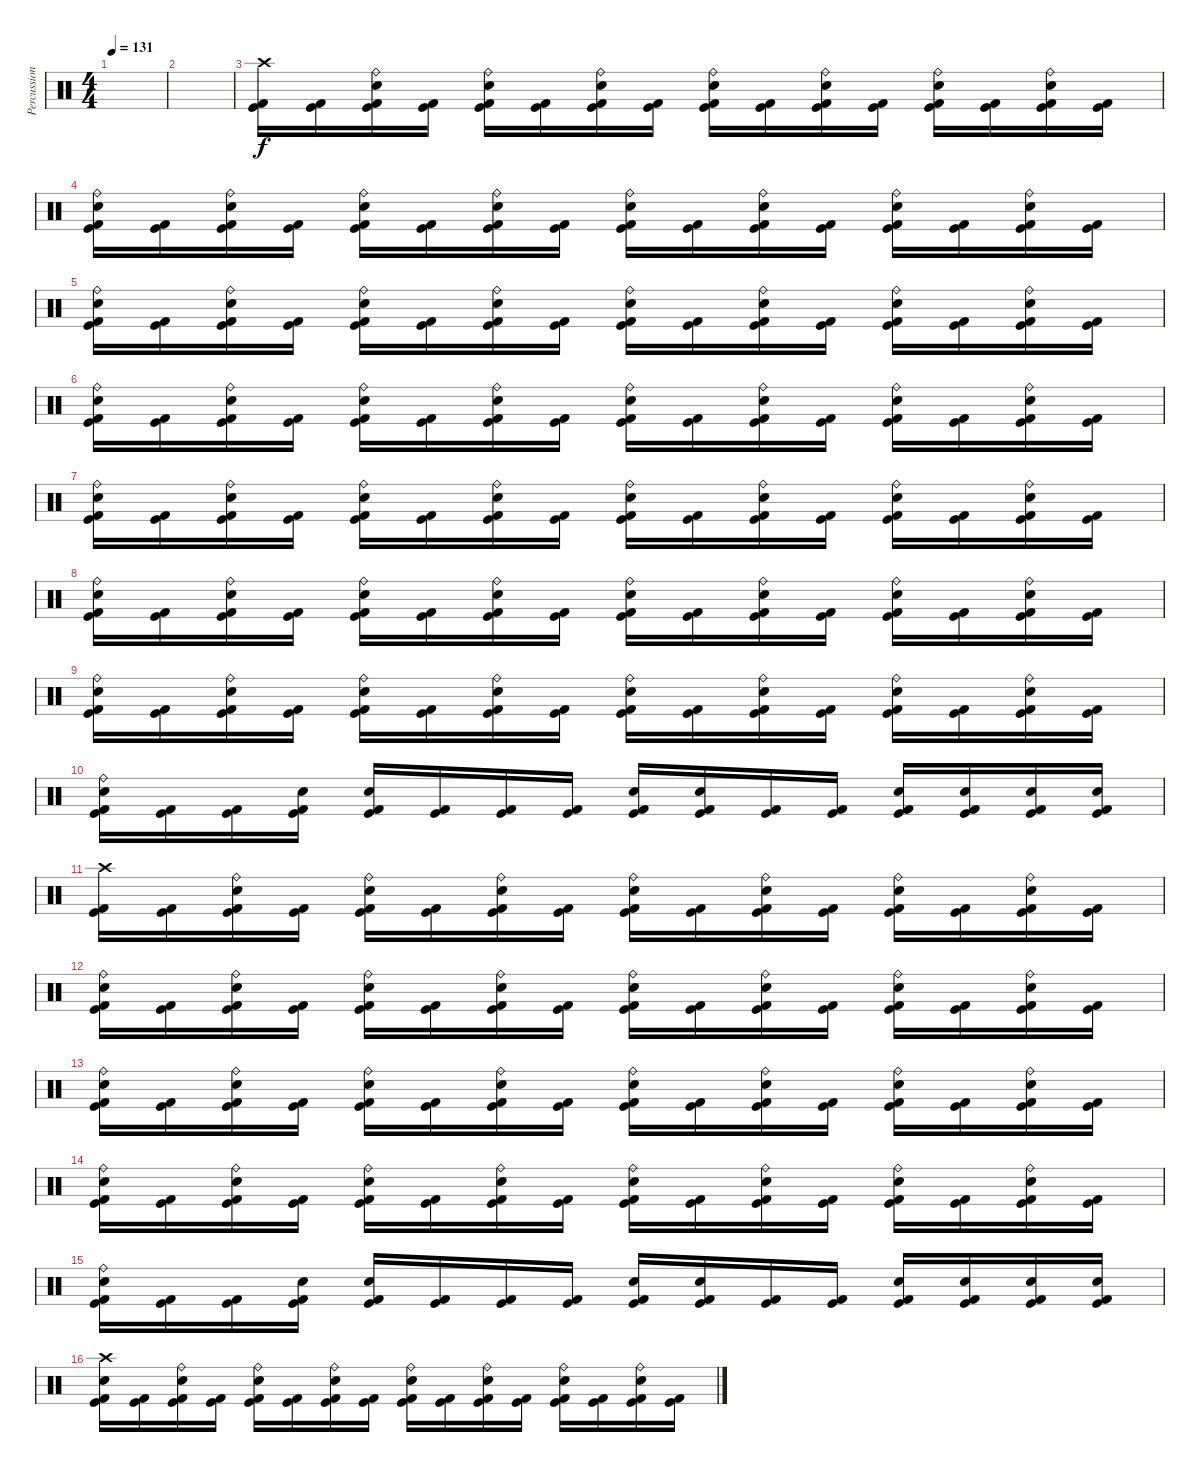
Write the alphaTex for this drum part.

\track ("Percussion" "Percussion") {instrument percussion}
\staff {score}
\articulation defaults
\ts (4 4)
\tempo 131
\clef neutral
\ks c
|
|
("Crash high (hit)" "Kick (hit)" "Kick (hit) 2").16 ("Kick (hit)" "Kick (hit) 2").16 ("Snare (hit) 2" "Ride (bell)" "Kick (hit)" "Kick (hit) 2").16 ("Kick (hit)" "Kick (hit) 2").16 ("Snare (hit) 2" "Ride (bell)" "Kick (hit)" "Kick (hit) 2").16 ("Kick (hit)" "Kick (hit) 2").16 ("Snare (hit) 2" "Ride (bell)" "Kick (hit)" "Kick (hit) 2").16 ("Kick (hit)" "Kick (hit) 2").16 ("Snare (hit) 2" "Ride (bell)" "Kick (hit)" "Kick (hit) 2").16 ("Kick (hit)" "Kick (hit) 2").16 ("Snare (hit) 2" "Ride (bell)" "Kick (hit)" "Kick (hit) 2").16 ("Kick (hit)" "Kick (hit) 2").16 ("Snare (hit) 2" "Ride (bell)" "Kick (hit)" "Kick (hit) 2").16 ("Kick (hit)" "Kick (hit) 2").16 ("Snare (hit) 2" "Ride (bell)" "Kick (hit)" "Kick (hit) 2").16 ("Kick (hit)" "Kick (hit) 2").16 |
("Snare (hit) 2" "Ride (bell)" "Kick (hit)" "Kick (hit) 2").16 ("Kick (hit)" "Kick (hit) 2").16 ("Snare (hit) 2" "Ride (bell)" "Kick (hit)" "Kick (hit) 2").16 ("Kick (hit)" "Kick (hit) 2").16 ("Snare (hit) 2" "Ride (bell)" "Kick (hit)" "Kick (hit) 2").16 ("Kick (hit)" "Kick (hit) 2").16 ("Snare (hit) 2" "Ride (bell)" "Kick (hit)" "Kick (hit) 2").16 ("Kick (hit)" "Kick (hit) 2").16 ("Snare (hit) 2" "Ride (bell)" "Kick (hit)" "Kick (hit) 2").16 ("Kick (hit)" "Kick (hit) 2").16 ("Snare (hit) 2" "Ride (bell)" "Kick (hit)" "Kick (hit) 2").16 ("Kick (hit)" "Kick (hit) 2").16 ("Snare (hit) 2" "Ride (bell)" "Kick (hit)" "Kick (hit) 2").16 ("Kick (hit)" "Kick (hit) 2").16 ("Snare (hit) 2" "Ride (bell)" "Kick (hit)" "Kick (hit) 2").16 ("Kick (hit)" "Kick (hit) 2").16 |
("Snare (hit) 2" "Ride (bell)" "Kick (hit)" "Kick (hit) 2").16 ("Kick (hit)" "Kick (hit) 2").16 ("Snare (hit) 2" "Ride (bell)" "Kick (hit)" "Kick (hit) 2").16 ("Kick (hit)" "Kick (hit) 2").16 ("Snare (hit) 2" "Ride (bell)" "Kick (hit)" "Kick (hit) 2").16 ("Kick (hit)" "Kick (hit) 2").16 ("Snare (hit) 2" "Ride (bell)" "Kick (hit)" "Kick (hit) 2").16 ("Kick (hit)" "Kick (hit) 2").16 ("Snare (hit) 2" "Ride (bell)" "Kick (hit)" "Kick (hit) 2").16 ("Kick (hit)" "Kick (hit) 2").16 ("Snare (hit) 2" "Ride (bell)" "Kick (hit)" "Kick (hit) 2").16 ("Kick (hit)" "Kick (hit) 2").16 ("Snare (hit) 2" "Ride (bell)" "Kick (hit)" "Kick (hit) 2").16 ("Kick (hit)" "Kick (hit) 2").16 ("Snare (hit) 2" "Ride (bell)" "Kick (hit)" "Kick (hit) 2").16 ("Kick (hit)" "Kick (hit) 2").16 |
("Snare (hit) 2" "Ride (bell)" "Kick (hit)" "Kick (hit) 2").16 ("Kick (hit)" "Kick (hit) 2").16 ("Snare (hit) 2" "Ride (bell)" "Kick (hit)" "Kick (hit) 2").16 ("Kick (hit)" "Kick (hit) 2").16 ("Snare (hit) 2" "Ride (bell)" "Kick (hit)" "Kick (hit) 2").16 ("Kick (hit)" "Kick (hit) 2").16 ("Snare (hit) 2" "Ride (bell)" "Kick (hit)" "Kick (hit) 2").16 ("Kick (hit)" "Kick (hit) 2").16 ("Snare (hit) 2" "Ride (bell)" "Kick (hit)" "Kick (hit) 2").16 ("Kick (hit)" "Kick (hit) 2").16 ("Snare (hit) 2" "Ride (bell)" "Kick (hit)" "Kick (hit) 2").16 ("Kick (hit)" "Kick (hit) 2").16 ("Snare (hit) 2" "Ride (bell)" "Kick (hit)" "Kick (hit) 2").16 ("Kick (hit)" "Kick (hit) 2").16 ("Snare (hit) 2" "Ride (bell)" "Kick (hit)" "Kick (hit) 2").16 ("Kick (hit)" "Kick (hit) 2").16 |
("Snare (hit) 2" "Ride (bell)" "Kick (hit)" "Kick (hit) 2").16 ("Kick (hit)" "Kick (hit) 2").16 ("Snare (hit) 2" "Ride (bell)" "Kick (hit)" "Kick (hit) 2").16 ("Kick (hit)" "Kick (hit) 2").16 ("Snare (hit) 2" "Ride (bell)" "Kick (hit)" "Kick (hit) 2").16 ("Kick (hit)" "Kick (hit) 2").16 ("Snare (hit) 2" "Ride (bell)" "Kick (hit)" "Kick (hit) 2").16 ("Kick (hit)" "Kick (hit) 2").16 ("Snare (hit) 2" "Ride (bell)" "Kick (hit)" "Kick (hit) 2").16 ("Kick (hit)" "Kick (hit) 2").16 ("Snare (hit) 2" "Ride (bell)" "Kick (hit)" "Kick (hit) 2").16 ("Kick (hit)" "Kick (hit) 2").16 ("Snare (hit) 2" "Ride (bell)" "Kick (hit)" "Kick (hit) 2").16 ("Kick (hit)" "Kick (hit) 2").16 ("Snare (hit) 2" "Ride (bell)" "Kick (hit)" "Kick (hit) 2").16 ("Kick (hit)" "Kick (hit) 2").16 |
("Snare (hit) 2" "Ride (bell)" "Kick (hit)" "Kick (hit) 2").16 ("Kick (hit)" "Kick (hit) 2").16 ("Snare (hit) 2" "Ride (bell)" "Kick (hit)" "Kick (hit) 2").16 ("Kick (hit)" "Kick (hit) 2").16 ("Snare (hit) 2" "Ride (bell)" "Kick (hit)" "Kick (hit) 2").16 ("Kick (hit)" "Kick (hit) 2").16 ("Snare (hit) 2" "Ride (bell)" "Kick (hit)" "Kick (hit) 2").16 ("Kick (hit)" "Kick (hit) 2").16 ("Snare (hit) 2" "Ride (bell)" "Kick (hit)" "Kick (hit) 2").16 ("Kick (hit)" "Kick (hit) 2").16 ("Snare (hit) 2" "Ride (bell)" "Kick (hit)" "Kick (hit) 2").16 ("Kick (hit)" "Kick (hit) 2").16 ("Snare (hit) 2" "Ride (bell)" "Kick (hit)" "Kick (hit) 2").16 ("Kick (hit)" "Kick (hit) 2").16 ("Snare (hit) 2" "Ride (bell)" "Kick (hit)" "Kick (hit) 2").16 ("Kick (hit)" "Kick (hit) 2").16 |
("Snare (hit) 2" "Ride (bell)" "Kick (hit)" "Kick (hit) 2").16 ("Kick (hit)" "Kick (hit) 2").16 ("Snare (hit) 2" "Ride (bell)" "Kick (hit)" "Kick (hit) 2").16 ("Kick (hit)" "Kick (hit) 2").16 ("Snare (hit) 2" "Ride (bell)" "Kick (hit)" "Kick (hit) 2").16 ("Kick (hit)" "Kick (hit) 2").16 ("Snare (hit) 2" "Ride (bell)" "Kick (hit)" "Kick (hit) 2").16 ("Kick (hit)" "Kick (hit) 2").16 ("Snare (hit) 2" "Ride (bell)" "Kick (hit)" "Kick (hit) 2").16 ("Kick (hit)" "Kick (hit) 2").16 ("Snare (hit) 2" "Ride (bell)" "Kick (hit)" "Kick (hit) 2").16 ("Kick (hit)" "Kick (hit) 2").16 ("Snare (hit) 2" "Ride (bell)" "Kick (hit)" "Kick (hit) 2").16 ("Kick (hit)" "Kick (hit) 2").16 ("Snare (hit) 2" "Ride (bell)" "Kick (hit)" "Kick (hit) 2").16 ("Kick (hit)" "Kick (hit) 2").16 |
("Snare (hit) 2" "Ride (bell)" "Kick (hit)" "Kick (hit) 2").16 ("Kick (hit)" "Kick (hit) 2").16 ("Kick (hit)" "Kick (hit) 2").16 ("Snare (hit) 2" "Kick (hit)" "Kick (hit) 2").16 ("Snare (hit) 2" "Kick (hit)" "Kick (hit) 2").16 ("Kick (hit)" "Kick (hit) 2").16 ("Kick (hit)" "Kick (hit) 2").16 ("Kick (hit)" "Kick (hit) 2").16 ("Snare (hit) 2" "Kick (hit)" "Kick (hit) 2").16 ("Snare (hit) 2" "Kick (hit)" "Kick (hit) 2").16 ("Kick (hit)" "Kick (hit) 2").16 ("Kick (hit)" "Kick (hit) 2").16 ("Snare (hit) 2" "Kick (hit)" "Kick (hit) 2").16 ("Snare (hit) 2" "Kick (hit)" "Kick (hit) 2").16 ("Snare (hit) 2" "Kick (hit)" "Kick (hit) 2").16 ("Snare (hit) 2" "Kick (hit)" "Kick (hit) 2").16 |
("Crash high (hit)" "Kick (hit)" "Kick (hit) 2").16 ("Kick (hit)" "Kick (hit) 2").16 ("Snare (hit) 2" "Ride (bell)" "Kick (hit)" "Kick (hit) 2").16 ("Kick (hit)" "Kick (hit) 2").16 ("Snare (hit) 2" "Ride (bell)" "Kick (hit)" "Kick (hit) 2").16 ("Kick (hit)" "Kick (hit) 2").16 ("Snare (hit) 2" "Ride (bell)" "Kick (hit)" "Kick (hit) 2").16 ("Kick (hit)" "Kick (hit) 2").16 ("Snare (hit) 2" "Ride (bell)" "Kick (hit)" "Kick (hit) 2").16 ("Kick (hit)" "Kick (hit) 2").16 ("Snare (hit) 2" "Ride (bell)" "Kick (hit)" "Kick (hit) 2").16 ("Kick (hit)" "Kick (hit) 2").16 ("Snare (hit) 2" "Ride (bell)" "Kick (hit)" "Kick (hit) 2").16 ("Kick (hit)" "Kick (hit) 2").16 ("Snare (hit) 2" "Ride (bell)" "Kick (hit)" "Kick (hit) 2").16 ("Kick (hit)" "Kick (hit) 2").16 |
("Snare (hit) 2" "Ride (bell)" "Kick (hit)" "Kick (hit) 2").16 ("Kick (hit)" "Kick (hit) 2").16 ("Snare (hit) 2" "Ride (bell)" "Kick (hit)" "Kick (hit) 2").16 ("Kick (hit)" "Kick (hit) 2").16 ("Snare (hit) 2" "Ride (bell)" "Kick (hit)" "Kick (hit) 2").16 ("Kick (hit)" "Kick (hit) 2").16 ("Snare (hit) 2" "Ride (bell)" "Kick (hit)" "Kick (hit) 2").16 ("Kick (hit)" "Kick (hit) 2").16 ("Snare (hit) 2" "Ride (bell)" "Kick (hit)" "Kick (hit) 2").16 ("Kick (hit)" "Kick (hit) 2").16 ("Snare (hit) 2" "Ride (bell)" "Kick (hit)" "Kick (hit) 2").16 ("Kick (hit)" "Kick (hit) 2").16 ("Snare (hit) 2" "Ride (bell)" "Kick (hit)" "Kick (hit) 2").16 ("Kick (hit)" "Kick (hit) 2").16 ("Snare (hit) 2" "Ride (bell)" "Kick (hit)" "Kick (hit) 2").16 ("Kick (hit)" "Kick (hit) 2").16 |
("Snare (hit) 2" "Ride (bell)" "Kick (hit)" "Kick (hit) 2").16 ("Kick (hit)" "Kick (hit) 2").16 ("Snare (hit) 2" "Ride (bell)" "Kick (hit)" "Kick (hit) 2").16 ("Kick (hit)" "Kick (hit) 2").16 ("Snare (hit) 2" "Ride (bell)" "Kick (hit)" "Kick (hit) 2").16 ("Kick (hit)" "Kick (hit) 2").16 ("Snare (hit) 2" "Ride (bell)" "Kick (hit)" "Kick (hit) 2").16 ("Kick (hit)" "Kick (hit) 2").16 ("Snare (hit) 2" "Ride (bell)" "Kick (hit)" "Kick (hit) 2").16 ("Kick (hit)" "Kick (hit) 2").16 ("Snare (hit) 2" "Ride (bell)" "Kick (hit)" "Kick (hit) 2").16 ("Kick (hit)" "Kick (hit) 2").16 ("Snare (hit) 2" "Ride (bell)" "Kick (hit)" "Kick (hit) 2").16 ("Kick (hit)" "Kick (hit) 2").16 ("Snare (hit) 2" "Ride (bell)" "Kick (hit)" "Kick (hit) 2").16 ("Kick (hit)" "Kick (hit) 2").16 |
("Snare (hit) 2" "Ride (bell)" "Kick (hit)" "Kick (hit) 2").16 ("Kick (hit)" "Kick (hit) 2").16 ("Snare (hit) 2" "Ride (bell)" "Kick (hit)" "Kick (hit) 2").16 ("Kick (hit)" "Kick (hit) 2").16 ("Snare (hit) 2" "Ride (bell)" "Kick (hit)" "Kick (hit) 2").16 ("Kick (hit)" "Kick (hit) 2").16 ("Snare (hit) 2" "Ride (bell)" "Kick (hit)" "Kick (hit) 2").16 ("Kick (hit)" "Kick (hit) 2").16 ("Snare (hit) 2" "Ride (bell)" "Kick (hit)" "Kick (hit) 2").16 ("Kick (hit)" "Kick (hit) 2").16 ("Snare (hit) 2" "Ride (bell)" "Kick (hit)" "Kick (hit) 2").16 ("Kick (hit)" "Kick (hit) 2").16 ("Snare (hit) 2" "Ride (bell)" "Kick (hit)" "Kick (hit) 2").16 ("Kick (hit)" "Kick (hit) 2").16 ("Snare (hit) 2" "Ride (bell)" "Kick (hit)" "Kick (hit) 2").16 ("Kick (hit)" "Kick (hit) 2").16 |
("Snare (hit) 2" "Ride (bell)" "Kick (hit)" "Kick (hit) 2").16 ("Kick (hit)" "Kick (hit) 2").16 ("Kick (hit)" "Kick (hit) 2").16 ("Snare (hit) 2" "Kick (hit)" "Kick (hit) 2").16 ("Snare (hit) 2" "Kick (hit)" "Kick (hit) 2").16 ("Kick (hit)" "Kick (hit) 2").16 ("Kick (hit)" "Kick (hit) 2").16 ("Kick (hit)" "Kick (hit) 2").16 ("Snare (hit) 2" "Kick (hit)" "Kick (hit) 2").16 ("Snare (hit) 2" "Kick (hit)" "Kick (hit) 2").16 ("Kick (hit)" "Kick (hit) 2").16 ("Kick (hit)" "Kick (hit) 2").16 ("Snare (hit) 2" "Kick (hit)" "Kick (hit) 2").16 ("Snare (hit) 2" "Kick (hit)" "Kick (hit) 2").16 ("Snare (hit) 2" "Kick (hit)" "Kick (hit) 2").16 ("Snare (hit) 2" "Kick (hit)" "Kick (hit) 2").16 |
("Snare (hit) 2" "Crash high (hit)" "Kick (hit)" "Kick (hit) 2").16 ("Kick (hit)" "Kick (hit) 2").16 ("Snare (hit) 2" "Ride (bell)" "Kick (hit)" "Kick (hit) 2").16 ("Kick (hit)" "Kick (hit) 2").16 ("Snare (hit) 2" "Ride (bell)" "Kick (hit)" "Kick (hit) 2").16 ("Kick (hit)" "Kick (hit) 2").16 ("Snare (hit) 2" "Ride (bell)" "Kick (hit)" "Kick (hit) 2").16 ("Kick (hit)" "Kick (hit) 2").16 ("Snare (hit) 2" "Ride (bell)" "Kick (hit)" "Kick (hit) 2").16 ("Kick (hit)" "Kick (hit) 2").16 ("Snare (hit) 2" "Ride (bell)" "Kick (hit)" "Kick (hit) 2").16 ("Kick (hit)" "Kick (hit) 2").16 ("Snare (hit) 2" "Ride (bell)" "Kick (hit)" "Kick (hit) 2").16 ("Kick (hit)" "Kick (hit) 2").16 ("Snare (hit) 2" "Ride (bell)" "Kick (hit)" "Kick (hit) 2").16 ("Kick (hit)" "Kick (hit) 2").16
